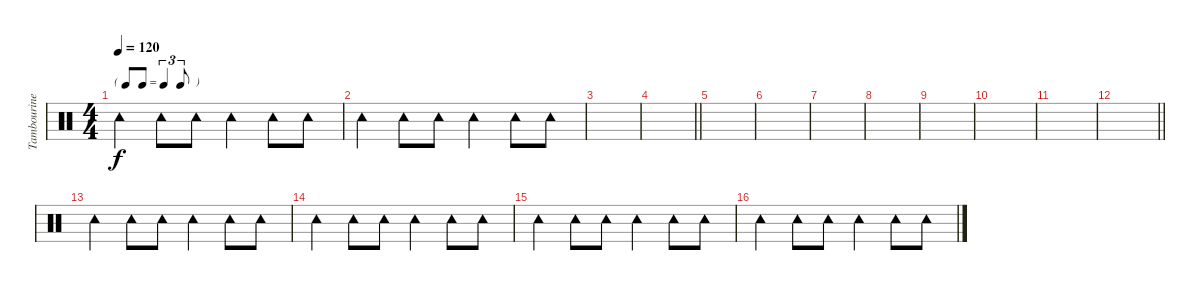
\track ("Tambourine (George Harrison)" "Tambourine") {instrument percussion}
\staff {score}
\articulation defaults
\ts (4 4)
\tf triplet8th
\tempo 120
\clef neutral
\ks c "Tambourine (hit)".4{dy f} "Tambourine (hit)".8 "Tambourine (hit)".8 "Tambourine (hit)".4 "Tambourine (hit)".8 "Tambourine (hit)".8
|
"Tambourine (hit)".4 "Tambourine (hit)".8 "Tambourine (hit)".8 "Tambourine (hit)".4 "Tambourine (hit)".8 "Tambourine (hit)".8 |
|
\barLineRight lightlight
|
|
|
|
|
|
|
|
\barLineRight lightlight
|
"Tambourine (hit)".4 "Tambourine (hit)".8 "Tambourine (hit)".8 "Tambourine (hit)".4 "Tambourine (hit)".8 "Tambourine (hit)".8 |
"Tambourine (hit)".4 "Tambourine (hit)".8 "Tambourine (hit)".8 "Tambourine (hit)".4 "Tambourine (hit)".8 "Tambourine (hit)".8 |
"Tambourine (hit)".4 "Tambourine (hit)".8 "Tambourine (hit)".8 "Tambourine (hit)".4 "Tambourine (hit)".8 "Tambourine (hit)".8 |
"Tambourine (hit)".4 "Tambourine (hit)".8 "Tambourine (hit)".8 "Tambourine (hit)".4 "Tambourine (hit)".8 "Tambourine (hit)".8
